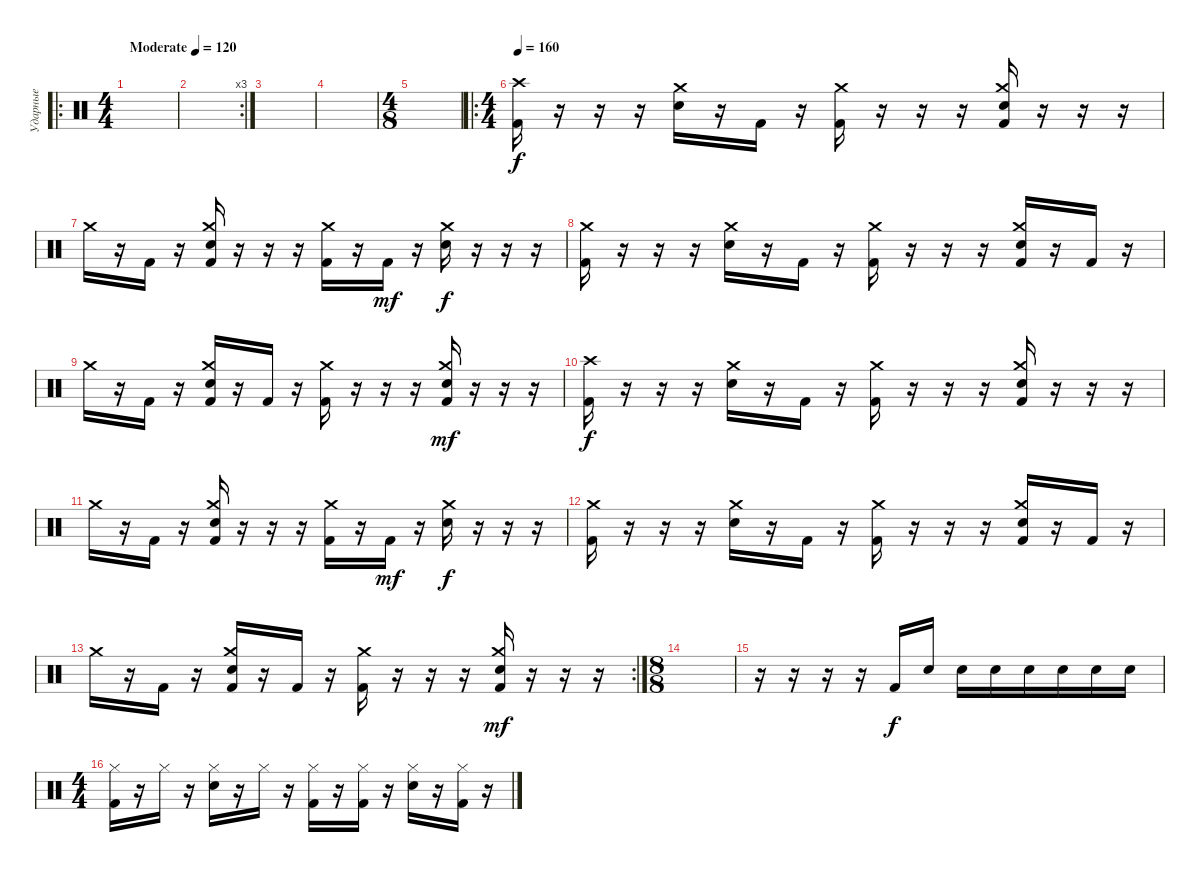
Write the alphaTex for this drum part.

\track ("Ударные" "Ударные") {instrument percussion}
\staff {score}
\articulation defaults
\ro
\ts (4 4)
\tempo (120 "Moderate")
\tempo 160
\tempo (120 "Moderate")
\clef neutral
\ks c
|
\rc 3
|
|
|
\ts (4 8)
|
\ro
\ts (4 4)
\tempo 190
\tempo 160
("Crash high (hit)" "Kick (hit) 2").16 r.16 r.16 r.16 ("Crash medium (hit)" "Electric Snare (hit)").16 r.16 "Kick (hit) 2".16 r.16 ("Crash medium (hit)" "Kick (hit) 2").16 r.16 r.16 r.16 ("Crash medium (hit)" "Electric Snare (hit)" "Kick (hit) 2").16 r.16 r.16 r.16 |
"Crash medium (hit)".16 r.16 "Kick (hit) 2".16 r.16 ("Crash medium (hit)" "Electric Snare (hit)" "Kick (hit) 2").16 r.16 r.16 r.16 ("Crash medium (hit)" "Kick (hit) 2").16 r.16 "Kick (hit) 2".16{dy mf} r.16 ("Crash medium (hit)" "Electric Snare (hit)").16{dy f} r.16 r.16 r.16 |
("Crash medium (hit)" "Kick (hit) 2").16 r.16 r.16 r.16 ("Crash medium (hit)" "Electric Snare (hit)").16 r.16 "Kick (hit) 2".16 r.16 ("Crash medium (hit)" "Kick (hit) 2").16 r.16 r.16 r.16 ("Crash medium (hit)" "Electric Snare (hit)" "Kick (hit) 2").16 r.16 "Kick (hit) 2".16 r.16 |
"Crash medium (hit)".16 r.16 "Kick (hit) 2".16 r.16 ("Crash medium (hit)" "Electric Snare (hit)" "Kick (hit) 2").16 r.16 "Kick (hit) 2".16 r.16 ("Crash medium (hit)" "Kick (hit) 2").16 r.16 r.16 r.16 ("Crash medium (hit)" "Electric Snare (hit)" "Kick (hit) 2").16{dy mf} r.16 r.16 r.16 |
("Crash high (hit)" "Kick (hit) 2").16{dy f} r.16 r.16 r.16 ("Crash medium (hit)" "Electric Snare (hit)").16 r.16 "Kick (hit) 2".16 r.16 ("Crash medium (hit)" "Kick (hit) 2").16 r.16 r.16 r.16 ("Crash medium (hit)" "Electric Snare (hit)" "Kick (hit) 2").16 r.16 r.16 r.16 |
"Crash medium (hit)".16 r.16 "Kick (hit) 2".16 r.16 ("Crash medium (hit)" "Electric Snare (hit)" "Kick (hit) 2").16 r.16 r.16 r.16 ("Crash medium (hit)" "Kick (hit) 2").16 r.16 "Kick (hit) 2".16{dy mf} r.16 ("Crash medium (hit)" "Electric Snare (hit)").16{dy f} r.16 r.16 r.16 |
("Crash medium (hit)" "Kick (hit) 2").16 r.16 r.16 r.16 ("Crash medium (hit)" "Electric Snare (hit)").16 r.16 "Kick (hit) 2".16 r.16 ("Crash medium (hit)" "Kick (hit) 2").16 r.16 r.16 r.16 ("Crash medium (hit)" "Electric Snare (hit)" "Kick (hit) 2").16 r.16 "Kick (hit) 2".16 r.16 |
\rc 2 "Crash medium (hit)".16
r.16 "Kick (hit) 2".16 r.16 ("Crash medium (hit)" "Electric Snare (hit)" "Kick (hit) 2").16 r.16 "Kick (hit) 2".16 r.16 ("Crash medium (hit)" "Kick (hit) 2").16 r.16 r.16 r.16 ("Crash medium (hit)" "Electric Snare (hit)" "Kick (hit) 2").16{dy mf} r.16 r.16 r.16 |
\ts (8 8)
|
r.16 r.16 r.16 r.16 "Kick (hit) 2".16{dy f} "Electric Snare (hit)".16 "Electric Snare (hit)".16 "Electric Snare (hit)".16 "Electric Snare (hit)".16 "Electric Snare (hit)".16 "Electric Snare (hit)".16 "Electric Snare (hit)".16 |
\ts (4 4)
("Hi-Hat (closed)" "Kick (hit) 2").16 r.16 "Hi-Hat (closed)".16 r.16 ("Hi-Hat (closed)" "Snare (hit) 2").16 r.16 "Hi-Hat (closed)".16 r.16 ("Hi-Hat (closed)" "Kick (hit) 2").16 r.16 ("Hi-Hat (closed)" "Kick (hit) 2").16 r.16 ("Hi-Hat (closed)" "Snare (hit) 2").16 r.16 ("Hi-Hat (closed)" "Kick (hit) 2").16 r.16
